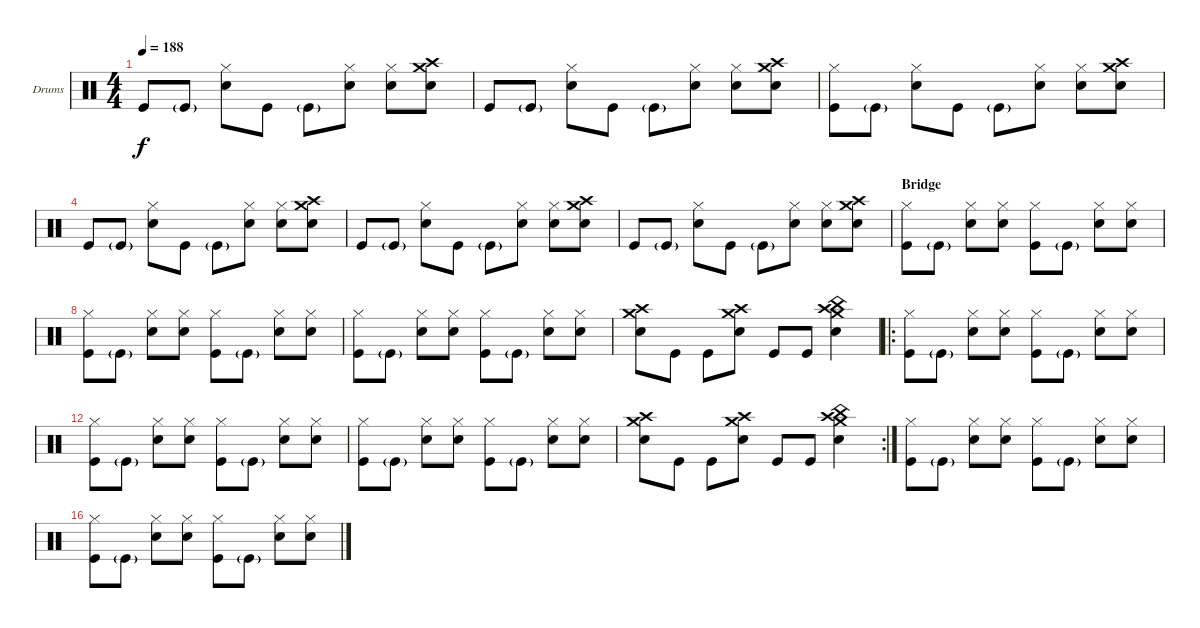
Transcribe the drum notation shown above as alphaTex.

\bracketExtendMode nobrackets
\firstSystemTrackNameOrientation horizontal
\otherSystemsTrackNameOrientation horizontal
\defaultBarNumberDisplay FirstOfSystem
\track ("Drumkit" "Drums") {instrument percussion}
\staff {score}
\articulation defaults
\ts (4 4)
\tempo 188
\clef neutral
\ks c "Kick (hit)".8{dy f} "Kick (hit)"{g}.8
("Hi-Hat (closed)" "Snare (hit) 2").8 "Kick (hit)".8 "Kick (hit)"{g}.8 ("Hi-Hat (closed)" "Snare (hit) 2").8 ("Hi-Hat (closed)" "Snare (hit) 2").8 ("Crash high (hit)" "Snare (hit) 2" "Crash medium (hit)").8 |
"Kick (hit)".8 "Kick (hit)"{g}.8 ("Hi-Hat (closed)" "Snare (hit) 2").8 "Kick (hit)".8 "Kick (hit)"{g}.8 ("Hi-Hat (closed)" "Snare (hit) 2").8 ("Hi-Hat (closed)" "Snare (hit) 2").8 ("Snare (hit) 2" "Crash high (hit)" "Crash medium (hit)").8 |
("Kick (hit)" "Hi-Hat (closed)").8 "Kick (hit)"{g}.8 ("Hi-Hat (closed)" "Snare (hit) 2").8 "Kick (hit)".8 "Kick (hit)"{g}.8 ("Hi-Hat (closed)" "Snare (hit) 2").8 ("Hi-Hat (closed)" "Snare (hit) 2").8 ("Crash high (hit)" "Snare (hit) 2" "Crash medium (hit)").8 |
"Kick (hit)".8 "Kick (hit)"{g}.8 ("Hi-Hat (closed)" "Snare (hit) 2").8 "Kick (hit)".8 "Kick (hit)"{g}.8 ("Hi-Hat (closed)" "Snare (hit) 2").8 ("Hi-Hat (closed)" "Snare (hit) 2").8 ("Crash high (hit)" "Snare (hit) 2" "Crash medium (hit)").8 |
"Kick (hit)".8 "Kick (hit)"{g}.8 ("Hi-Hat (closed)" "Snare (hit) 2").8 "Kick (hit)".8 "Kick (hit)"{g}.8 ("Hi-Hat (closed)" "Snare (hit) 2").8 ("Hi-Hat (closed)" "Snare (hit) 2").8 ("Crash high (hit)" "Snare (hit) 2" "Crash medium (hit)").8 |
"Kick (hit)".8 "Kick (hit)"{g}.8 ("Hi-Hat (closed)" "Snare (hit) 2").8 "Kick (hit)".8 "Kick (hit)"{g}.8 ("Hi-Hat (closed)" "Snare (hit) 2").8 ("Hi-Hat (closed)" "Snare (hit) 2").8 ("Snare (hit) 2" "Crash medium (hit)" "Crash high (hit)").8 |
\section ("" "Bridge")
("Hi-Hat (closed)" "Kick (hit)").8 "Kick (hit)"{g}.8 ("Hi-Hat (closed)" "Snare (hit) 2").8 ("Snare (hit) 2" "Hi-Hat (closed)").8 ("Hi-Hat (closed)" "Kick (hit)").8 "Kick (hit)"{g}.8 ("Hi-Hat (closed)" "Snare (hit) 2").8 ("Snare (hit) 2" "Hi-Hat (closed)").8 |
("Hi-Hat (closed)" "Kick (hit)").8 "Kick (hit)"{g}.8 ("Hi-Hat (closed)" "Snare (hit) 2").8 ("Snare (hit) 2" "Hi-Hat (closed)").8 ("Hi-Hat (closed)" "Kick (hit)").8 "Kick (hit)"{g}.8 ("Hi-Hat (closed)" "Snare (hit) 2").8 ("Snare (hit) 2" "Hi-Hat (closed)").8 |
("Hi-Hat (closed)" "Kick (hit)").8 "Kick (hit)"{g}.8 ("Hi-Hat (closed)" "Snare (hit) 2").8 ("Snare (hit) 2" "Hi-Hat (closed)").8 ("Hi-Hat (closed)" "Kick (hit)").8 "Kick (hit)"{g}.8 ("Hi-Hat (closed)" "Snare (hit) 2").8 ("Snare (hit) 2" "Hi-Hat (closed)").8 |
("Crash high (hit)" "Snare (hit) 2" "Crash medium (hit)").8 "Kick (hit)".8 "Kick (hit)".8 ("Crash high (hit)" "Snare (hit) 2" "Crash medium (hit)").8 "Kick (hit)".8 "Kick (hit)".8 ("Crash high (hit)" "Snare (hit) 2" "Crash medium (hit)" "China (hit)").4 |
\ro
("Hi-Hat (closed)" "Kick (hit)").8 "Kick (hit)"{g}.8 ("Hi-Hat (closed)" "Snare (hit) 2").8 ("Snare (hit) 2" "Hi-Hat (closed)").8 ("Hi-Hat (closed)" "Kick (hit)").8 "Kick (hit)"{g}.8 ("Hi-Hat (closed)" "Snare (hit) 2").8 ("Snare (hit) 2" "Hi-Hat (closed)").8 |
("Hi-Hat (closed)" "Kick (hit)").8 "Kick (hit)"{g}.8 ("Hi-Hat (closed)" "Snare (hit) 2").8 ("Snare (hit) 2" "Hi-Hat (closed)").8 ("Hi-Hat (closed)" "Kick (hit)").8 "Kick (hit)"{g}.8 ("Hi-Hat (closed)" "Snare (hit) 2").8 ("Snare (hit) 2" "Hi-Hat (closed)").8 |
("Hi-Hat (closed)" "Kick (hit)").8 "Kick (hit)"{g}.8 ("Hi-Hat (closed)" "Snare (hit) 2").8 ("Snare (hit) 2" "Hi-Hat (closed)").8 ("Hi-Hat (closed)" "Kick (hit)").8 "Kick (hit)"{g}.8 ("Hi-Hat (closed)" "Snare (hit) 2").8 ("Snare (hit) 2" "Hi-Hat (closed)").8 |
\rc 2
("Crash high (hit)" "Snare (hit) 2" "Crash medium (hit)").8 "Kick (hit)".8 "Kick (hit)".8 ("Crash high (hit)" "Snare (hit) 2" "Crash medium (hit)").8 "Kick (hit)".8 "Kick (hit)".8 ("Crash high (hit)" "Snare (hit) 2" "China (hit)" "Crash medium (hit)").4 |
("Hi-Hat (closed)" "Kick (hit)").8 "Kick (hit)"{g}.8 ("Hi-Hat (closed)" "Snare (hit) 2").8 ("Snare (hit) 2" "Hi-Hat (closed)").8 ("Hi-Hat (closed)" "Kick (hit)").8 "Kick (hit)"{g}.8 ("Hi-Hat (closed)" "Snare (hit) 2").8 ("Snare (hit) 2" "Hi-Hat (closed)").8 |
("Hi-Hat (closed)" "Kick (hit)").8 "Kick (hit)"{g}.8 ("Hi-Hat (closed)" "Snare (hit) 2").8 ("Snare (hit) 2" "Hi-Hat (closed)").8 ("Hi-Hat (closed)" "Kick (hit)").8 "Kick (hit)"{g}.8 ("Hi-Hat (closed)" "Snare (hit) 2").8 ("Snare (hit) 2" "Hi-Hat (closed)").8
